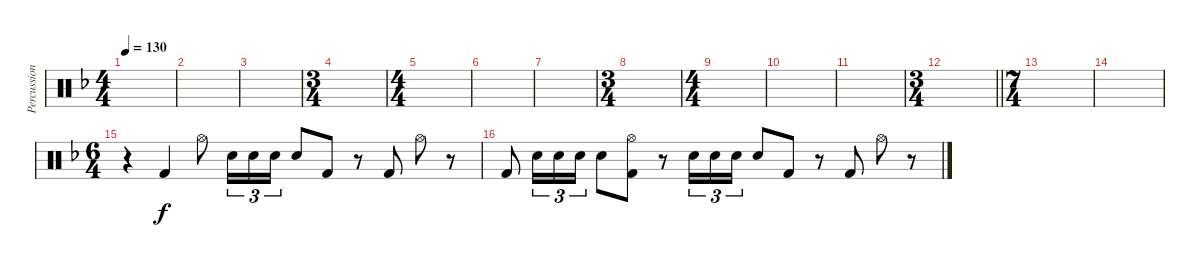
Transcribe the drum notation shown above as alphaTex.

\track ("Percussions" "Percussion") {instrument percussion}
\staff {score}
\articulation defaults
\ts (4 4)
\tempo 130
\clef neutral
\ks dminor
|
|
|
\ts (3 4)
|
\ts (4 4)
|
|
|
\ts (3 4)
|
\ts (4 4)
|
|
|
\ts (3 4)
\barLineRight lightlight
|
\ts (7 4)
|
|
\ts (6 4)
r.4 "Kick (hit) 2".4 "Hi-Hat (open)".8 "Snare (hit) 2".16{tu (3 2)} "Snare (hit) 2".16{tu (3 2)} "Snare (hit) 2".16{tu (3 2)} "Snare (hit) 2".8 "Kick (hit) 2".8 r.8 "Kick (hit) 2".8 "Hi-Hat (open)".8 r.8 |
"Kick (hit) 2".8 "Snare (hit) 2".16{tu (3 2)} "Snare (hit) 2".16{tu (3 2)} "Snare (hit) 2".16{tu (3 2)} "Snare (hit) 2".8 ("Hi-Hat (open)" "Kick (hit) 2").8 r.8 "Snare (hit) 2".16{tu (3 2)} "Snare (hit) 2".16{tu (3 2)} "Snare (hit) 2".16{tu (3 2)} "Snare (hit) 2".8 "Kick (hit) 2".8 r.8 "Kick (hit) 2".8 "Hi-Hat (open)".8 r.8
